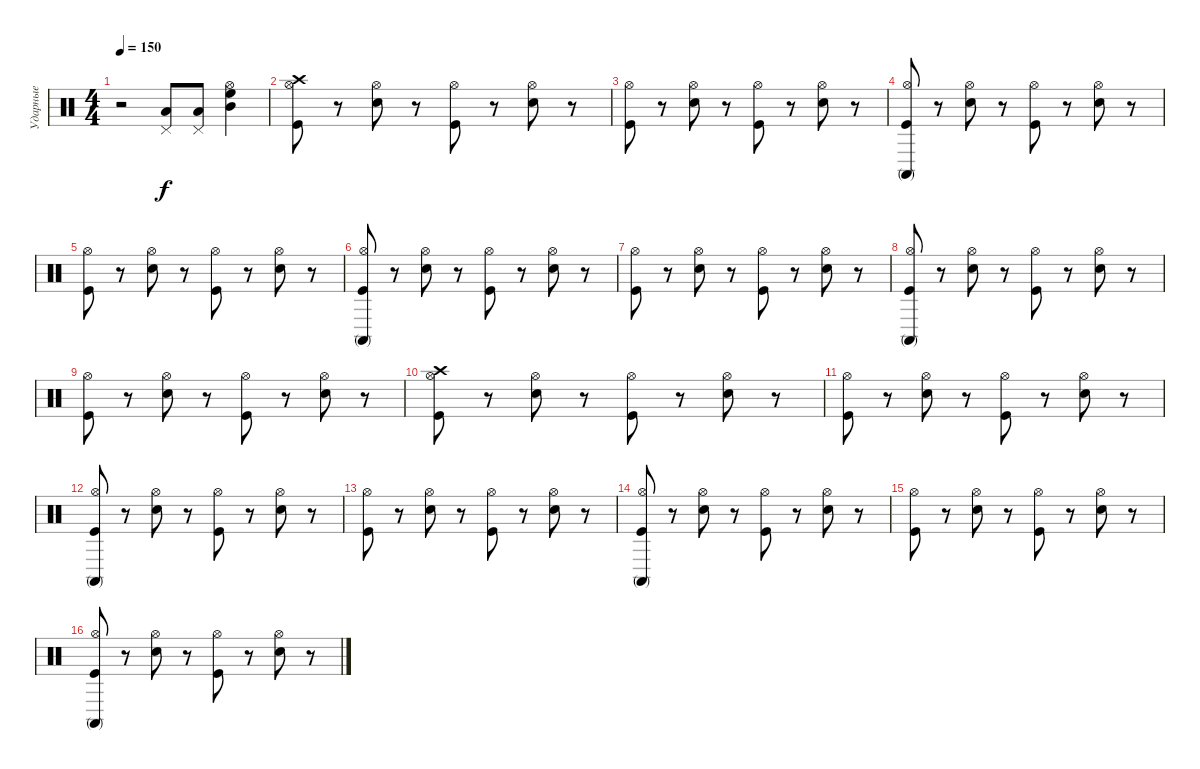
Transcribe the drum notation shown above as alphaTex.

\track ("Ударные" "Ударные") {instrument percussion}
\staff {score}
\articulation defaults
\ts (4 4)
\tempo 150
\clef neutral
\ks c
r.2{dy f} ("Pedal Hi-Hat (hit)" "Low Tom (hit)").8 ("Pedal Hi-Hat (hit)" "Low Tom (hit)").8 ("High Floor Tom (hit)" "Mid Tom (hit)" "Hi-Hat (open)").4 |
("Hi-Hat (open)" "Kick (hit)" "Crash high (hit)").8 r.8 ("Hi-Hat (open)" "Snare (hit) 2").8 r.8 ("Hi-Hat (open)" "Kick (hit)").8 r.8 ("Hi-Hat (open)" "Snare (hit) 2").8 r.8 |
("Hi-Hat (open)" "Kick (hit)").8 r.8 ("Hi-Hat (open)" "Snare (hit) 2").8 r.8 ("Hi-Hat (open)" "Kick (hit)").8 r.8 ("Hi-Hat (open)" "Snare (hit) 2").8 r.8 |
("Hi-Hat (open)" "Kick (hit)" "Conga high (mute)").8 r.8 ("Hi-Hat (open)" "Snare (hit) 2").8 r.8 ("Hi-Hat (open)" "Kick (hit)").8 r.8 ("Hi-Hat (open)" "Snare (hit) 2").8 r.8 |
("Hi-Hat (open)" "Kick (hit)").8 r.8 ("Hi-Hat (open)" "Snare (hit) 2").8 r.8 ("Hi-Hat (open)" "Kick (hit)").8 r.8 ("Hi-Hat (open)" "Snare (hit) 2").8 r.8 |
("Hi-Hat (open)" "Kick (hit)" "Conga high (mute)").8 r.8 ("Hi-Hat (open)" "Snare (hit) 2").8 r.8 ("Hi-Hat (open)" "Kick (hit)").8 r.8 ("Hi-Hat (open)" "Snare (hit) 2").8 r.8 |
("Hi-Hat (open)" "Kick (hit)").8 r.8 ("Hi-Hat (open)" "Snare (hit) 2").8 r.8 ("Hi-Hat (open)" "Kick (hit)").8 r.8 ("Hi-Hat (open)" "Snare (hit) 2").8 r.8 |
("Hi-Hat (open)" "Kick (hit)" "Conga high (mute)").8 r.8 ("Hi-Hat (open)" "Snare (hit) 2").8 r.8 ("Hi-Hat (open)" "Kick (hit)").8 r.8 ("Hi-Hat (open)" "Snare (hit) 2").8 r.8 |
("Hi-Hat (open)" "Kick (hit)").8 r.8 ("Hi-Hat (open)" "Snare (hit) 2").8 r.8 ("Hi-Hat (open)" "Kick (hit)").8 r.8 ("Hi-Hat (open)" "Snare (hit) 2").8 r.8 |
("Hi-Hat (open)" "Kick (hit)" "Crash high (hit)").8 r.8 ("Hi-Hat (open)" "Snare (hit) 2").8 r.8 ("Hi-Hat (open)" "Kick (hit)").8 r.8 ("Hi-Hat (open)" "Snare (hit) 2").8 r.8 |
("Hi-Hat (open)" "Kick (hit)").8 r.8 ("Hi-Hat (open)" "Snare (hit) 2").8 r.8 ("Hi-Hat (open)" "Kick (hit)").8 r.8 ("Hi-Hat (open)" "Snare (hit) 2").8 r.8 |
("Hi-Hat (open)" "Kick (hit)" "Conga high (mute)").8 r.8 ("Hi-Hat (open)" "Snare (hit) 2").8 r.8 ("Hi-Hat (open)" "Kick (hit)").8 r.8 ("Hi-Hat (open)" "Snare (hit) 2").8 r.8 |
("Hi-Hat (open)" "Kick (hit)").8 r.8 ("Hi-Hat (open)" "Snare (hit) 2").8 r.8 ("Hi-Hat (open)" "Kick (hit)").8 r.8 ("Hi-Hat (open)" "Snare (hit) 2").8 r.8 |
("Hi-Hat (open)" "Kick (hit)" "Conga high (mute)").8 r.8 ("Hi-Hat (open)" "Snare (hit) 2").8 r.8 ("Hi-Hat (open)" "Kick (hit)").8 r.8 ("Hi-Hat (open)" "Snare (hit) 2").8 r.8 |
("Hi-Hat (open)" "Kick (hit)").8 r.8 ("Hi-Hat (open)" "Snare (hit) 2").8 r.8 ("Hi-Hat (open)" "Kick (hit)").8 r.8 ("Hi-Hat (open)" "Snare (hit) 2").8 r.8 |
("Hi-Hat (open)" "Kick (hit)" "Conga high (mute)").8 r.8 ("Hi-Hat (open)" "Snare (hit) 2").8 r.8 ("Hi-Hat (open)" "Kick (hit)").8 r.8 ("Hi-Hat (open)" "Snare (hit) 2").8 r.8
